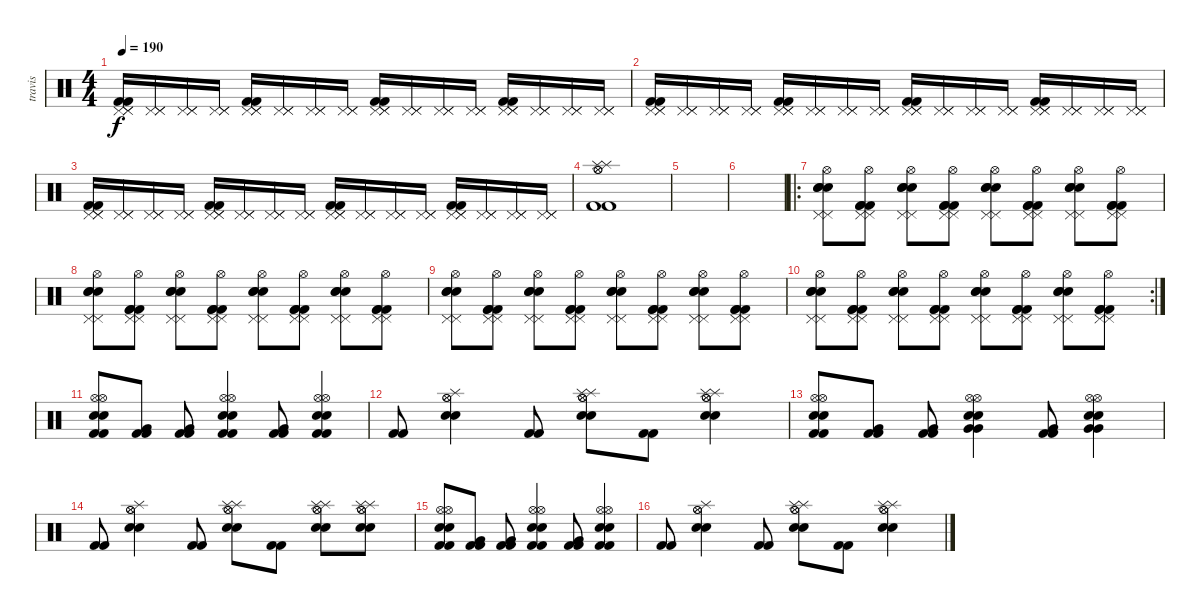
\track ("travis" "travis") {instrument percussion}
\staff {score}
\articulation defaults
\ts (4 4)
\tempo 190
\clef neutral
\ks c
("Pedal Hi-Hat (hit)" "Pedal Hi-Hat (hit)" "Pedal Hi-Hat (hit)" "Kick (hit) 2" "Kick (hit) 2").16{dy f} ("Pedal Hi-Hat (hit)" "Pedal Hi-Hat (hit)" "Pedal Hi-Hat (hit)").16 ("Pedal Hi-Hat (hit)" "Pedal Hi-Hat (hit)" "Pedal Hi-Hat (hit)").16 ("Pedal Hi-Hat (hit)" "Pedal Hi-Hat (hit)" "Pedal Hi-Hat (hit)").16 ("Pedal Hi-Hat (hit)" "Pedal Hi-Hat (hit)" "Pedal Hi-Hat (hit)" "Kick (hit) 2" "Kick (hit) 2").16 ("Pedal Hi-Hat (hit)" "Pedal Hi-Hat (hit)" "Pedal Hi-Hat (hit)").16 ("Pedal Hi-Hat (hit)" "Pedal Hi-Hat (hit)" "Pedal Hi-Hat (hit)").16 ("Pedal Hi-Hat (hit)" "Pedal Hi-Hat (hit)" "Pedal Hi-Hat (hit)").16 ("Pedal Hi-Hat (hit)" "Pedal Hi-Hat (hit)" "Pedal Hi-Hat (hit)" "Kick (hit) 2" "Kick (hit) 2").16 ("Pedal Hi-Hat (hit)" "Pedal Hi-Hat (hit)" "Pedal Hi-Hat (hit)").16 ("Pedal Hi-Hat (hit)" "Pedal Hi-Hat (hit)" "Pedal Hi-Hat (hit)").16 ("Pedal Hi-Hat (hit)" "Pedal Hi-Hat (hit)" "Pedal Hi-Hat (hit)").16 ("Pedal Hi-Hat (hit)" "Pedal Hi-Hat (hit)" "Pedal Hi-Hat (hit)" "Kick (hit) 2" "Kick (hit) 2").16 ("Pedal Hi-Hat (hit)" "Pedal Hi-Hat (hit)" "Pedal Hi-Hat (hit)").16 ("Pedal Hi-Hat (hit)" "Pedal Hi-Hat (hit)" "Pedal Hi-Hat (hit)").16 ("Pedal Hi-Hat (hit)" "Pedal Hi-Hat (hit)" "Pedal Hi-Hat (hit)").16 |
("Pedal Hi-Hat (hit)" "Pedal Hi-Hat (hit)" "Pedal Hi-Hat (hit)" "Kick (hit) 2" "Kick (hit) 2").16 ("Pedal Hi-Hat (hit)" "Pedal Hi-Hat (hit)" "Pedal Hi-Hat (hit)").16 ("Pedal Hi-Hat (hit)" "Pedal Hi-Hat (hit)" "Pedal Hi-Hat (hit)").16 ("Pedal Hi-Hat (hit)" "Pedal Hi-Hat (hit)" "Pedal Hi-Hat (hit)").16 ("Pedal Hi-Hat (hit)" "Pedal Hi-Hat (hit)" "Pedal Hi-Hat (hit)" "Kick (hit) 2" "Kick (hit) 2").16 ("Pedal Hi-Hat (hit)" "Pedal Hi-Hat (hit)" "Pedal Hi-Hat (hit)").16 ("Pedal Hi-Hat (hit)" "Pedal Hi-Hat (hit)" "Pedal Hi-Hat (hit)").16 ("Pedal Hi-Hat (hit)" "Pedal Hi-Hat (hit)" "Pedal Hi-Hat (hit)").16 ("Pedal Hi-Hat (hit)" "Pedal Hi-Hat (hit)" "Pedal Hi-Hat (hit)" "Kick (hit) 2" "Kick (hit) 2").16 ("Pedal Hi-Hat (hit)" "Pedal Hi-Hat (hit)" "Pedal Hi-Hat (hit)").16 ("Pedal Hi-Hat (hit)" "Pedal Hi-Hat (hit)" "Pedal Hi-Hat (hit)").16 ("Pedal Hi-Hat (hit)" "Pedal Hi-Hat (hit)" "Pedal Hi-Hat (hit)").16 ("Pedal Hi-Hat (hit)" "Pedal Hi-Hat (hit)" "Pedal Hi-Hat (hit)" "Kick (hit) 2" "Kick (hit) 2").16 ("Pedal Hi-Hat (hit)" "Pedal Hi-Hat (hit)" "Pedal Hi-Hat (hit)").16 ("Pedal Hi-Hat (hit)" "Pedal Hi-Hat (hit)" "Pedal Hi-Hat (hit)").16 ("Pedal Hi-Hat (hit)" "Pedal Hi-Hat (hit)" "Pedal Hi-Hat (hit)").16 |
("Pedal Hi-Hat (hit)" "Pedal Hi-Hat (hit)" "Pedal Hi-Hat (hit)" "Kick (hit) 2" "Kick (hit) 2").16 ("Pedal Hi-Hat (hit)" "Pedal Hi-Hat (hit)" "Pedal Hi-Hat (hit)").16 ("Pedal Hi-Hat (hit)" "Pedal Hi-Hat (hit)" "Pedal Hi-Hat (hit)").16 ("Pedal Hi-Hat (hit)" "Pedal Hi-Hat (hit)" "Pedal Hi-Hat (hit)").16 ("Pedal Hi-Hat (hit)" "Pedal Hi-Hat (hit)" "Pedal Hi-Hat (hit)" "Kick (hit) 2" "Kick (hit) 2").16 ("Pedal Hi-Hat (hit)" "Pedal Hi-Hat (hit)" "Pedal Hi-Hat (hit)").16 ("Pedal Hi-Hat (hit)" "Pedal Hi-Hat (hit)" "Pedal Hi-Hat (hit)").16 ("Pedal Hi-Hat (hit)" "Pedal Hi-Hat (hit)" "Pedal Hi-Hat (hit)").16 ("Pedal Hi-Hat (hit)" "Pedal Hi-Hat (hit)" "Pedal Hi-Hat (hit)" "Kick (hit) 2" "Kick (hit) 2").16 ("Pedal Hi-Hat (hit)" "Pedal Hi-Hat (hit)" "Pedal Hi-Hat (hit)").16 ("Pedal Hi-Hat (hit)" "Pedal Hi-Hat (hit)" "Pedal Hi-Hat (hit)").16 ("Pedal Hi-Hat (hit)" "Pedal Hi-Hat (hit)" "Pedal Hi-Hat (hit)").16 ("Pedal Hi-Hat (hit)" "Pedal Hi-Hat (hit)" "Pedal Hi-Hat (hit)" "Kick (hit) 2" "Kick (hit) 2").16 ("Pedal Hi-Hat (hit)" "Pedal Hi-Hat (hit)" "Pedal Hi-Hat (hit)").16 ("Pedal Hi-Hat (hit)" "Pedal Hi-Hat (hit)" "Pedal Hi-Hat (hit)").16 ("Pedal Hi-Hat (hit)" "Pedal Hi-Hat (hit)" "Pedal Hi-Hat (hit)").16 |
("Hi-Hat (open)" "Hi-Hat (open)" "Kick (hit) 2" "Kick (hit) 2" "Splash (hit)" "Splash (hit)").1 |
|
|
\ro
("Snare (hit) 2" "Snare (hit) 2" "Snare (hit) 2" "Pedal Hi-Hat (hit)" "Hi-Hat (open)" "Pedal Hi-Hat (hit)").8 ("Kick (hit) 2" "Kick (hit) 2" "Kick (hit) 2" "Pedal Hi-Hat (hit)" "Hi-Hat (open)" "Pedal Hi-Hat (hit)").8 ("Snare (hit) 2" "Snare (hit) 2" "Snare (hit) 2" "Pedal Hi-Hat (hit)" "Hi-Hat (open)" "Pedal Hi-Hat (hit)").8 ("Kick (hit) 2" "Kick (hit) 2" "Kick (hit) 2" "Pedal Hi-Hat (hit)" "Hi-Hat (open)" "Pedal Hi-Hat (hit)").8 ("Snare (hit) 2" "Snare (hit) 2" "Snare (hit) 2" "Pedal Hi-Hat (hit)" "Hi-Hat (open)" "Pedal Hi-Hat (hit)").8 ("Kick (hit) 2" "Kick (hit) 2" "Kick (hit) 2" "Pedal Hi-Hat (hit)" "Hi-Hat (open)" "Pedal Hi-Hat (hit)").8 ("Snare (hit) 2" "Snare (hit) 2" "Snare (hit) 2" "Pedal Hi-Hat (hit)" "Hi-Hat (open)" "Pedal Hi-Hat (hit)").8 ("Kick (hit) 2" "Kick (hit) 2" "Kick (hit) 2" "Pedal Hi-Hat (hit)" "Hi-Hat (open)" "Pedal Hi-Hat (hit)").8 |
("Snare (hit) 2" "Snare (hit) 2" "Snare (hit) 2" "Pedal Hi-Hat (hit)" "Hi-Hat (open)" "Pedal Hi-Hat (hit)").8 ("Kick (hit) 2" "Kick (hit) 2" "Kick (hit) 2" "Pedal Hi-Hat (hit)" "Hi-Hat (open)" "Pedal Hi-Hat (hit)").8 ("Snare (hit) 2" "Snare (hit) 2" "Snare (hit) 2" "Pedal Hi-Hat (hit)" "Hi-Hat (open)" "Pedal Hi-Hat (hit)").8 ("Kick (hit) 2" "Kick (hit) 2" "Kick (hit) 2" "Pedal Hi-Hat (hit)" "Hi-Hat (open)" "Pedal Hi-Hat (hit)").8 ("Snare (hit) 2" "Snare (hit) 2" "Snare (hit) 2" "Pedal Hi-Hat (hit)" "Hi-Hat (open)" "Pedal Hi-Hat (hit)").8 ("Kick (hit) 2" "Kick (hit) 2" "Kick (hit) 2" "Pedal Hi-Hat (hit)" "Hi-Hat (open)" "Pedal Hi-Hat (hit)").8 ("Snare (hit) 2" "Snare (hit) 2" "Snare (hit) 2" "Pedal Hi-Hat (hit)" "Hi-Hat (open)" "Pedal Hi-Hat (hit)").8 ("Kick (hit) 2" "Kick (hit) 2" "Kick (hit) 2" "Pedal Hi-Hat (hit)" "Hi-Hat (open)" "Pedal Hi-Hat (hit)").8 |
("Snare (hit) 2" "Snare (hit) 2" "Snare (hit) 2" "Pedal Hi-Hat (hit)" "Hi-Hat (open)" "Pedal Hi-Hat (hit)").8 ("Kick (hit) 2" "Kick (hit) 2" "Kick (hit) 2" "Pedal Hi-Hat (hit)" "Hi-Hat (open)" "Pedal Hi-Hat (hit)").8 ("Snare (hit) 2" "Snare (hit) 2" "Snare (hit) 2" "Pedal Hi-Hat (hit)" "Hi-Hat (open)" "Pedal Hi-Hat (hit)").8 ("Kick (hit) 2" "Kick (hit) 2" "Kick (hit) 2" "Pedal Hi-Hat (hit)" "Hi-Hat (open)" "Pedal Hi-Hat (hit)").8 ("Snare (hit) 2" "Snare (hit) 2" "Snare (hit) 2" "Pedal Hi-Hat (hit)" "Hi-Hat (open)" "Pedal Hi-Hat (hit)").8 ("Kick (hit) 2" "Kick (hit) 2" "Kick (hit) 2" "Pedal Hi-Hat (hit)" "Hi-Hat (open)" "Pedal Hi-Hat (hit)").8 ("Snare (hit) 2" "Snare (hit) 2" "Snare (hit) 2" "Pedal Hi-Hat (hit)" "Hi-Hat (open)" "Pedal Hi-Hat (hit)").8 ("Kick (hit) 2" "Kick (hit) 2" "Kick (hit) 2" "Pedal Hi-Hat (hit)" "Hi-Hat (open)" "Pedal Hi-Hat (hit)").8 |
\rc 2
("Snare (hit) 2" "Snare (hit) 2" "Snare (hit) 2" "Pedal Hi-Hat (hit)" "Hi-Hat (open)" "Pedal Hi-Hat (hit)").8 ("Kick (hit) 2" "Kick (hit) 2" "Kick (hit) 2" "Pedal Hi-Hat (hit)" "Hi-Hat (open)" "Pedal Hi-Hat (hit)").8 ("Snare (hit) 2" "Snare (hit) 2" "Snare (hit) 2" "Pedal Hi-Hat (hit)" "Hi-Hat (open)" "Pedal Hi-Hat (hit)").8 ("Kick (hit) 2" "Kick (hit) 2" "Kick (hit) 2" "Pedal Hi-Hat (hit)" "Hi-Hat (open)" "Pedal Hi-Hat (hit)").8 ("Snare (hit) 2" "Snare (hit) 2" "Snare (hit) 2" "Pedal Hi-Hat (hit)" "Hi-Hat (open)" "Pedal Hi-Hat (hit)").8 ("Kick (hit) 2" "Kick (hit) 2" "Kick (hit) 2" "Pedal Hi-Hat (hit)" "Hi-Hat (open)" "Pedal Hi-Hat (hit)").8 ("Snare (hit) 2" "Snare (hit) 2" "Snare (hit) 2" "Pedal Hi-Hat (hit)" "Hi-Hat (open)" "Pedal Hi-Hat (hit)").8 ("Kick (hit) 2" "Kick (hit) 2" "Kick (hit) 2" "Pedal Hi-Hat (hit)" "Hi-Hat (open)" "Pedal Hi-Hat (hit)").8 |
("Kick (hit) 2" "Kick (hit) 2" "Snare (hit) 2" "Snare (hit) 2" "Hi-Hat (open)" "Hi-Hat (open)").8 ("Kick (hit) 2" "Kick (hit) 2" "Very Low Tom (hit)").8 ("Kick (hit) 2" "Kick (hit) 2" "Very Low Tom (hit)").8 ("Kick (hit) 2" "Kick (hit) 2" "Snare (hit) 2" "Snare (hit) 2" "Hi-Hat (open)" "Hi-Hat (open)").4 ("Kick (hit) 2" "Kick (hit) 2" "Very Low Tom (hit)").8 ("Kick (hit) 2" "Kick (hit) 2" "Snare (hit) 2" "Snare (hit) 2" "Hi-Hat (open)" "Hi-Hat (open)").4 |
("Kick (hit) 2" "Kick (hit) 2").8 ("Snare (hit) 2" "Snare (hit) 2" "Hi-Hat (open)" "Hi-Hat (open)" "Splash (hit)").4 ("Kick (hit) 2" "Kick (hit) 2").8 ("Snare (hit) 2" "Snare (hit) 2" "Hi-Hat (open)" "Hi-Hat (open)" "Splash (hit)" "Splash (hit)").8 ("Kick (hit) 2" "Kick (hit) 2").8 ("Snare (hit) 2" "Snare (hit) 2" "Hi-Hat (open)" "Hi-Hat (open)" "Splash (hit)" "Splash (hit)").4 |
("Kick (hit) 2" "Kick (hit) 2" "Snare (hit) 2" "Snare (hit) 2" "Hi-Hat (open)" "Hi-Hat (open)").8 ("Kick (hit) 2" "Kick (hit) 2" "Very Low Tom (hit)").8 ("Kick (hit) 2" "Kick (hit) 2" "Very Low Tom (hit)").8 ("Very Low Tom (hit)" "Very Low Tom (hit)" "Snare (hit) 2" "Snare (hit) 2" "Hi-Hat (open)" "Hi-Hat (open)").4 ("Kick (hit) 2" "Kick (hit) 2" "Very Low Tom (hit)").8 ("Very Low Tom (hit)" "Very Low Tom (hit)" "Snare (hit) 2" "Snare (hit) 2" "Hi-Hat (open)" "Hi-Hat (open)").4 |
("Kick (hit) 2" "Kick (hit) 2").8 ("Snare (hit) 2" "Snare (hit) 2" "Hi-Hat (open)" "Hi-Hat (open)" "Splash (hit)").4 ("Kick (hit) 2" "Kick (hit) 2").8 ("Snare (hit) 2" "Snare (hit) 2" "Hi-Hat (open)" "Hi-Hat (open)" "Splash (hit)" "Splash (hit)").8 ("Kick (hit) 2" "Kick (hit) 2").8 ("Snare (hit) 2" "Snare (hit) 2" "Hi-Hat (open)" "Hi-Hat (open)" "Splash (hit)" "Splash (hit)").8 ("Snare (hit) 2" "Snare (hit) 2" "Hi-Hat (open)" "Hi-Hat (open)" "Splash (hit)" "Splash (hit)").8 |
("Kick (hit) 2" "Kick (hit) 2" "Snare (hit) 2" "Snare (hit) 2" "Hi-Hat (open)" "Hi-Hat (open)").8 ("Kick (hit) 2" "Kick (hit) 2" "Very Low Tom (hit)").8 ("Kick (hit) 2" "Kick (hit) 2" "Very Low Tom (hit)").8 ("Kick (hit) 2" "Kick (hit) 2" "Snare (hit) 2" "Snare (hit) 2" "Hi-Hat (open)" "Hi-Hat (open)").4 ("Kick (hit) 2" "Kick (hit) 2" "Very Low Tom (hit)").8 ("Kick (hit) 2" "Kick (hit) 2" "Snare (hit) 2" "Snare (hit) 2" "Hi-Hat (open)" "Hi-Hat (open)").4 |
("Kick (hit) 2" "Kick (hit) 2").8 ("Snare (hit) 2" "Snare (hit) 2" "Hi-Hat (open)" "Hi-Hat (open)" "Splash (hit)").4 ("Kick (hit) 2" "Kick (hit) 2").8 ("Snare (hit) 2" "Snare (hit) 2" "Hi-Hat (open)" "Hi-Hat (open)" "Splash (hit)" "Splash (hit)").8 ("Kick (hit) 2" "Kick (hit) 2").8 ("Snare (hit) 2" "Snare (hit) 2" "Hi-Hat (open)" "Hi-Hat (open)" "Splash (hit)" "Splash (hit)").4
